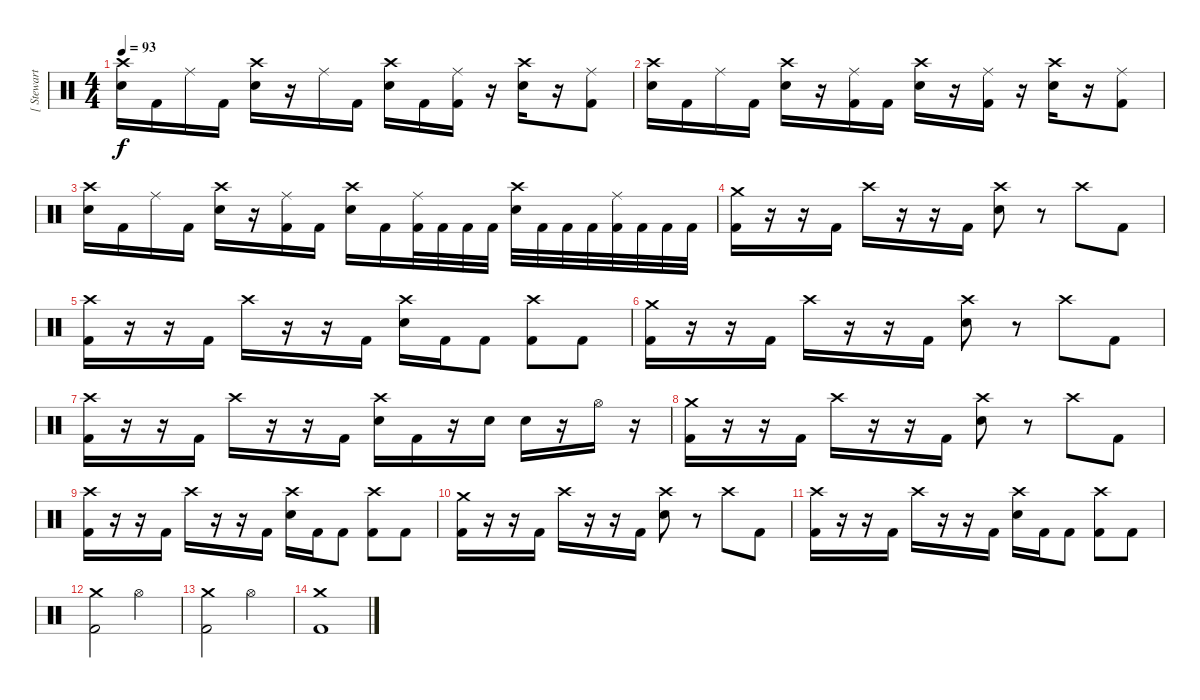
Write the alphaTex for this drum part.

\track ("[ Stewart ]" "[ Stewart ") {instrument percussion}
\staff {score}
\articulation defaults
\ts (4 4)
\tempo 93
\clef neutral
\ks c
("Electric Snare (hit)" "Crash high (hit)").16{dy f} "Kick (hit) 2".16 "Ride (middle)".16 "Kick (hit) 2".16 ("Electric Snare (hit)" "Crash high (hit)").16 r.16 "Ride (middle)".16 "Kick (hit) 2".16 ("Electric Snare (hit)" "Crash high (hit)").16 "Kick (hit) 2".16 ("Kick (hit) 2" "Ride (middle)").16 r.16 ("Electric Snare (hit)" "Crash high (hit)").16 r.16 ("Kick (hit) 2" "Ride (middle)").8 |
("Electric Snare (hit)" "Crash high (hit)").16 "Kick (hit) 2".16 "Ride (middle)".16 "Kick (hit) 2".16 ("Electric Snare (hit)" "Crash high (hit)").16 r.16 ("Kick (hit) 2" "Ride (middle)").16 "Kick (hit) 2".16 ("Electric Snare (hit)" "Crash high (hit)").16 r.16 ("Kick (hit) 2" "Ride (middle)").16 r.16 ("Electric Snare (hit)" "Crash high (hit)").16 r.16 ("Kick (hit) 2" "Ride (middle)").8 |
("Electric Snare (hit)" "Crash high (hit)").16 "Kick (hit) 2".16 "Ride (middle)".16 "Kick (hit) 2".16 ("Electric Snare (hit)" "Crash high (hit)").16 r.16 ("Kick (hit) 2" "Ride (middle)").16 "Kick (hit) 2".16 ("Electric Snare (hit)" "Crash high (hit)").16 "Kick (hit) 2".16 ("Kick (hit) 2" "Ride (middle)").32 "Kick (hit) 2".32 "Kick (hit) 2".32 "Kick (hit) 2".32 ("Electric Snare (hit)" "Crash high (hit)").32 "Kick (hit) 2".32 "Kick (hit) 2".32 "Kick (hit) 2".32 ("Kick (hit) 2" "Ride (middle)").32 "Kick (hit) 2".32 "Kick (hit) 2".32 "Kick (hit) 2".32 |
("Kick (hit) 2" "Crash medium (hit)").16 r.16 r.16 "Kick (hit) 2".16 "Crash high (hit)".16 r.16 r.16 "Kick (hit) 2".16 ("Electric Snare (hit)" "Crash high (hit)").8 r.8 "Crash high (hit)".8 "Kick (hit) 2".8 |
("Kick (hit) 2" "Crash high (hit)").16 r.16 r.16 "Kick (hit) 2".16 "Crash high (hit)".16 r.16 r.16 "Kick (hit) 2".16 ("Electric Snare (hit)" "Crash high (hit)").16 "Kick (hit) 2".16 "Kick (hit) 2".8 ("Kick (hit) 2" "Crash high (hit)").8 "Kick (hit) 2".8 |
("Kick (hit) 2" "Crash medium (hit)").16 r.16 r.16 "Kick (hit) 2".16 "Crash high (hit)".16 r.16 r.16 "Kick (hit) 2".16 ("Electric Snare (hit)" "Crash high (hit)").8 r.8 "Crash high (hit)".8 "Kick (hit) 2".8 |
("Kick (hit) 2" "Crash high (hit)").16 r.16 r.16 "Kick (hit) 2".16 "Crash high (hit)".16 r.16 r.16 "Kick (hit) 2".16 ("Electric Snare (hit)" "Crash high (hit)").16 "Kick (hit) 2".16 r.16 "Electric Snare (hit)".16 "Electric Snare (hit)".16 r.16 "Hi-Hat (open)".16 r.16 |
("Kick (hit) 2" "Crash medium (hit)").16 r.16 r.16 "Kick (hit) 2".16 "Crash high (hit)".16 r.16 r.16 "Kick (hit) 2".16 ("Electric Snare (hit)" "Crash high (hit)").8 r.8 "Crash high (hit)".8 "Kick (hit) 2".8 |
("Kick (hit) 2" "Crash high (hit)").16 r.16 r.16 "Kick (hit) 2".16 "Crash high (hit)".16 r.16 r.16 "Kick (hit) 2".16 ("Electric Snare (hit)" "Crash high (hit)").16 "Kick (hit) 2".16 "Kick (hit) 2".8 ("Kick (hit) 2" "Crash high (hit)").8 "Kick (hit) 2".8 |
("Kick (hit) 2" "Crash medium (hit)").16 r.16 r.16 "Kick (hit) 2".16 "Crash high (hit)".16 r.16 r.16 "Kick (hit) 2".16 ("Electric Snare (hit)" "Crash high (hit)").8 r.8 "Crash high (hit)".8 "Kick (hit) 2".8 |
("Kick (hit) 2" "Crash high (hit)").16 r.16 r.16 "Kick (hit) 2".16 "Crash high (hit)".16 r.16 r.16 "Kick (hit) 2".16 ("Electric Snare (hit)" "Crash high (hit)").16 "Kick (hit) 2".16 "Kick (hit) 2".8 ("Kick (hit) 2" "Crash high (hit)").8 "Kick (hit) 2".8 |
("Kick (hit) 2" "Crash medium (hit)").2 "Hi-Hat (open)".2 |
("Kick (hit) 2" "Crash medium (hit)").2 "Hi-Hat (open)".2 |
("Kick (hit) 2" "Crash medium (hit)").1
